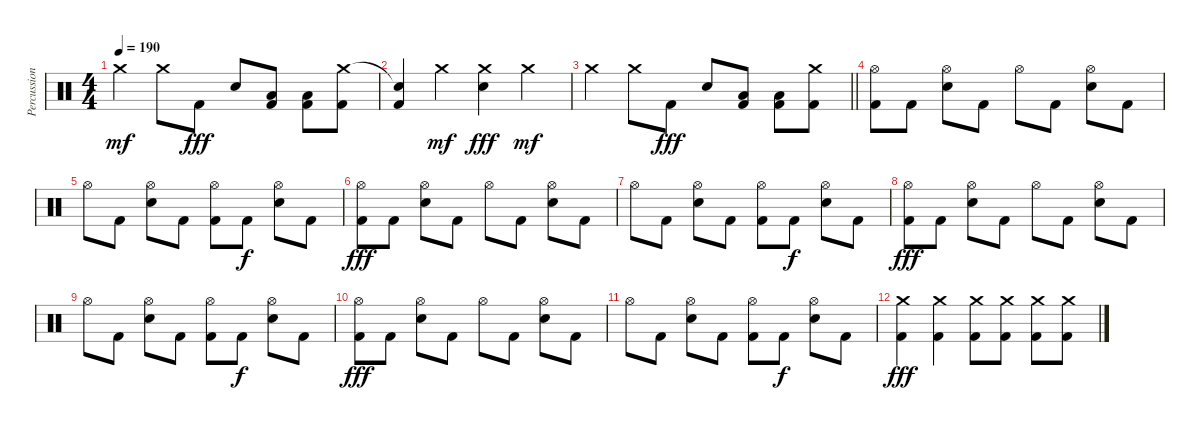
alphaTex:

\track ("Percussion" "Percussion") {instrument percussion}
\staff {score}
\articulation defaults
\ts (4 4)
\tempo 190
\clef neutral
\ks c "Crash medium (hit)".4{dy mf} "Crash medium (hit)".8 "Kick (hit) 2".8{dy fff} "Electric Snare (hit)".8
("Low Floor Tom (hit)" "Kick (hit) 2").8 ("Low Floor Tom (hit)" "Kick (hit) 2").8 ("Crash medium (hit)" "Kick (hit) 2").8 |
("Snare (hit)"{t} "Kick (hit) 2").4 "Crash medium (hit)".4{dy mf} ("Crash medium (hit)" "Electric Snare (hit)").4{dy fff} "Crash medium (hit)".4{dy mf} |
\barLineRight lightlight "Crash medium (hit)".4 "Crash medium (hit)".8 "Kick (hit) 2".8{dy fff} "Electric Snare (hit)".8
("Low Floor Tom (hit)" "Kick (hit) 2").8 ("Low Floor Tom (hit)" "Kick (hit) 2").8 ("Crash medium (hit)" "Kick (hit) 2").8 |
("Hi-Hat (open)" "Kick (hit) 2").8 "Kick (hit) 2".8 ("Hi-Hat (open)" "Electric Snare (hit)").8 "Kick (hit) 2".8 "Hi-Hat (open)".8 "Kick (hit) 2".8 ("Hi-Hat (open)" "Electric Snare (hit)").8 "Kick (hit) 2".8 |
"Hi-Hat (open)".8 "Kick (hit) 2".8 ("Hi-Hat (open)" "Electric Snare (hit)").8 "Kick (hit) 2".8 ("Hi-Hat (open)" "Kick (hit) 2").8 "Kick (hit) 2".8{dy f} ("Hi-Hat (open)" "Electric Snare (hit)").8 "Kick (hit) 2".8 |
("Hi-Hat (open)" "Kick (hit) 2").8{dy fff} "Kick (hit) 2".8 ("Hi-Hat (open)" "Electric Snare (hit)").8 "Kick (hit) 2".8 "Hi-Hat (open)".8 "Kick (hit) 2".8 ("Hi-Hat (open)" "Electric Snare (hit)").8 "Kick (hit) 2".8 |
"Hi-Hat (open)".8 "Kick (hit) 2".8 ("Hi-Hat (open)" "Electric Snare (hit)").8 "Kick (hit) 2".8 ("Hi-Hat (open)" "Kick (hit) 2").8 "Kick (hit) 2".8{dy f} ("Hi-Hat (open)" "Electric Snare (hit)").8 "Kick (hit) 2".8 |
("Hi-Hat (open)" "Kick (hit) 2").8{dy fff} "Kick (hit) 2".8 ("Hi-Hat (open)" "Electric Snare (hit)").8 "Kick (hit) 2".8 "Hi-Hat (open)".8 "Kick (hit) 2".8 ("Hi-Hat (open)" "Electric Snare (hit)").8 "Kick (hit) 2".8 |
"Hi-Hat (open)".8 "Kick (hit) 2".8 ("Hi-Hat (open)" "Electric Snare (hit)").8 "Kick (hit) 2".8 ("Hi-Hat (open)" "Kick (hit) 2").8 "Kick (hit) 2".8{dy f} ("Hi-Hat (open)" "Electric Snare (hit)").8 "Kick (hit) 2".8 |
("Hi-Hat (open)" "Kick (hit) 2").8{dy fff} "Kick (hit) 2".8 ("Hi-Hat (open)" "Electric Snare (hit)").8 "Kick (hit) 2".8 "Hi-Hat (open)".8 "Kick (hit) 2".8 ("Hi-Hat (open)" "Electric Snare (hit)").8 "Kick (hit) 2".8 |
"Hi-Hat (open)".8 "Kick (hit) 2".8 ("Hi-Hat (open)" "Electric Snare (hit)").8 "Kick (hit) 2".8 ("Hi-Hat (open)" "Kick (hit) 2").8 "Kick (hit) 2".8{dy f} ("Hi-Hat (open)" "Electric Snare (hit)").8 "Kick (hit) 2".8 |
("Crash medium (hit)" "Kick (hit) 2").4{dy fff} ("Crash medium (hit)" "Kick (hit) 2").4 ("Crash medium (hit)" "Kick (hit) 2").8 ("Crash medium (hit)" "Kick (hit) 2").8 ("Crash medium (hit)" "Kick (hit) 2").8 ("Crash medium (hit)" "Kick (hit) 2").8
